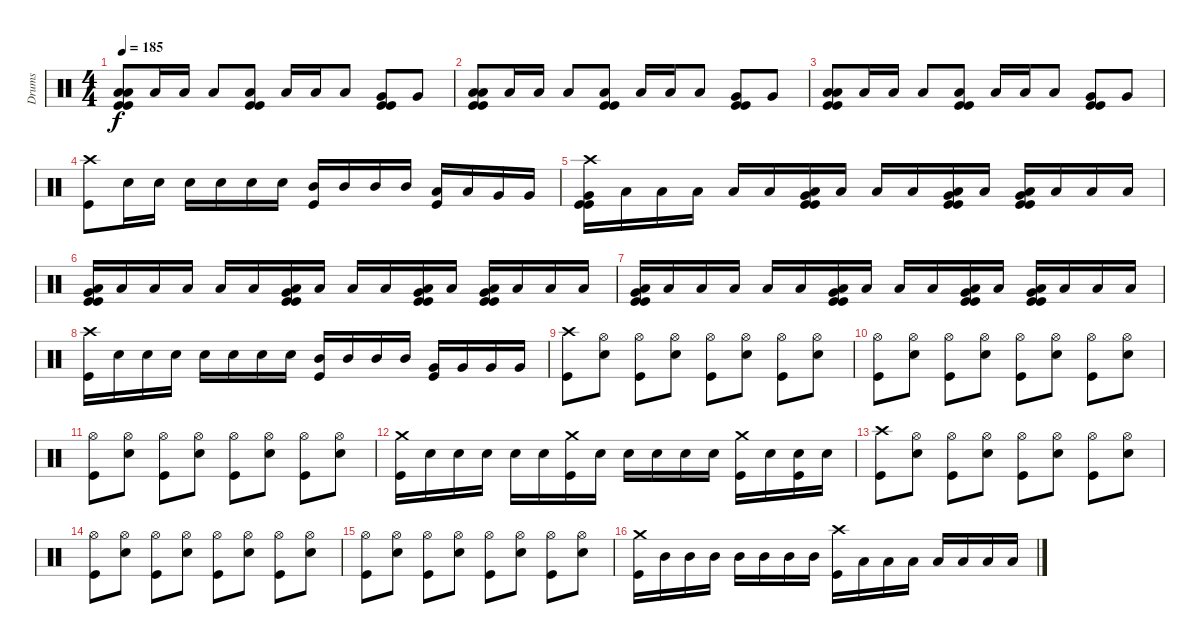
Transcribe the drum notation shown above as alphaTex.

\track ("Drums" "Drums") {instrument percussion}
\staff {score}
\articulation defaults
\ts (4 4)
\tempo 185
\clef neutral
\ks c
("Low Tom (hit)" "Low Tom (hit)" "Kick (hit)" "Kick (hit)").8{dy f} "Low Tom (hit)".16 "Low Tom (hit)".16 "Low Tom (hit)".8 ("Low Tom (hit)" "Kick (hit)" "Kick (hit)").8 "Low Tom (hit)".16 "Low Tom (hit)".16 "Low Tom (hit)".8 ("Very Low Tom (hit)" "Kick (hit)" "Kick (hit)").8 "Very Low Tom (hit)".8 |
("Low Tom (hit)" "Low Tom (hit)" "Kick (hit)" "Kick (hit)").8 "Low Tom (hit)".16 "Low Tom (hit)".16 "Low Tom (hit)".8 ("Low Tom (hit)" "Kick (hit)" "Kick (hit)").8 "Low Tom (hit)".16 "Low Tom (hit)".16 "Low Tom (hit)".8 ("Very Low Tom (hit)" "Kick (hit)" "Kick (hit)").8 "Very Low Tom (hit)".8 |
("Low Tom (hit)" "Low Tom (hit)" "Kick (hit)" "Kick (hit)").8 "Low Tom (hit)".16 "Low Tom (hit)".16 "Low Tom (hit)".8 ("Low Tom (hit)" "Kick (hit)" "Kick (hit)").8 "Low Tom (hit)".16 "Low Tom (hit)".16 "Low Tom (hit)".8 ("Very Low Tom (hit)" "Kick (hit)" "Kick (hit)").8 "Very Low Tom (hit)".8 |
("Crash high (hit)" "Kick (hit)").8 "Electric Snare (hit)".16 "Electric Snare (hit)".16 "Electric Snare (hit)".16 "Electric Snare (hit)".16 "Electric Snare (hit)".16 "Electric Snare (hit)".16 ("Mid Tom (hit)" "Kick (hit)").16 "Mid Tom (hit)".16 "Mid Tom (hit)".16 "Mid Tom (hit)".16 ("Low Tom (hit)" "Kick (hit)").16 "Low Tom (hit)".16 "Very Low Tom (hit)".16 "Very Low Tom (hit)".16 |
("Crash high (hit)" "Very Low Tom (hit)" "Kick (hit)" "Kick (hit)").16 "Low Tom (hit)".16 "Low Tom (hit)".16 "Low Tom (hit)".16 "Low Tom (hit)".16 "Low Tom (hit)".16 ("Low Tom (hit)" "Very Low Tom (hit)" "Kick (hit)" "Kick (hit)").16 "Low Tom (hit)".16 "Low Tom (hit)".16 "Low Tom (hit)".16 ("Low Tom (hit)" "Very Low Tom (hit)" "Kick (hit)" "Kick (hit)").16 "Low Tom (hit)".16 ("Low Tom (hit)" "Very Low Tom (hit)" "Kick (hit)" "Kick (hit)").16 "Low Tom (hit)".16 "Low Tom (hit)".16 "Low Tom (hit)".16 |
("Low Tom (hit)" "Very Low Tom (hit)" "Kick (hit)" "Kick (hit)").16 "Low Tom (hit)".16 "Low Tom (hit)".16 "Low Tom (hit)".16 "Low Tom (hit)".16 "Low Tom (hit)".16 ("Low Tom (hit)" "Very Low Tom (hit)" "Kick (hit)" "Kick (hit)").16 "Low Tom (hit)".16 "Low Tom (hit)".16 "Low Tom (hit)".16 ("Low Tom (hit)" "Very Low Tom (hit)" "Kick (hit)" "Kick (hit)").16 "Low Tom (hit)".16 ("Low Tom (hit)" "Very Low Tom (hit)" "Kick (hit)" "Kick (hit)").16 "Low Tom (hit)".16 "Low Tom (hit)".16 "Low Tom (hit)".16 |
("Low Tom (hit)" "Very Low Tom (hit)" "Kick (hit)" "Kick (hit)").16 "Low Tom (hit)".16 "Low Tom (hit)".16 "Low Tom (hit)".16 "Low Tom (hit)".16 "Low Tom (hit)".16 ("Low Tom (hit)" "Very Low Tom (hit)" "Kick (hit)" "Kick (hit)").16 "Low Tom (hit)".16 "Low Tom (hit)".16 "Low Tom (hit)".16 ("Low Tom (hit)" "Very Low Tom (hit)" "Kick (hit)" "Kick (hit)").16 "Low Tom (hit)".16 ("Low Tom (hit)" "Very Low Tom (hit)" "Kick (hit)" "Kick (hit)").16 "Low Tom (hit)".16 "Low Tom (hit)".16 "Low Tom (hit)".16 |
("Crash high (hit)" "Kick (hit)").16 "Electric Snare (hit)".16 "Electric Snare (hit)".16 "Electric Snare (hit)".16 "Electric Snare (hit)".16 "Electric Snare (hit)".16 "Electric Snare (hit)".16 "Electric Snare (hit)".16 ("Mid Tom (hit)" "Kick (hit)").16 "Mid Tom (hit)".16 "Mid Tom (hit)".16 "Mid Tom (hit)".16 ("Very Low Tom (hit)" "Kick (hit)").16 "Very Low Tom (hit)".16 "Very Low Tom (hit)".16 "Very Low Tom (hit)".16 |
("Crash high (hit)" "Kick (hit)").8 ("Hi-Hat (open)" "Electric Snare (hit)").8 ("Hi-Hat (open)" "Kick (hit)").8 ("Hi-Hat (open)" "Electric Snare (hit)").8 ("Hi-Hat (open)" "Kick (hit)").8 ("Hi-Hat (open)" "Electric Snare (hit)").8 ("Hi-Hat (open)" "Kick (hit)").8 ("Hi-Hat (open)" "Electric Snare (hit)").8 |
("Hi-Hat (open)" "Kick (hit)").8 ("Hi-Hat (open)" "Electric Snare (hit)").8 ("Hi-Hat (open)" "Kick (hit)").8 ("Hi-Hat (open)" "Electric Snare (hit)").8 ("Hi-Hat (open)" "Kick (hit)").8 ("Hi-Hat (open)" "Electric Snare (hit)").8 ("Hi-Hat (open)" "Kick (hit)").8 ("Hi-Hat (open)" "Electric Snare (hit)").8 |
("Hi-Hat (open)" "Kick (hit)").8 ("Hi-Hat (open)" "Electric Snare (hit)").8 ("Hi-Hat (open)" "Kick (hit)").8 ("Hi-Hat (open)" "Electric Snare (hit)").8 ("Hi-Hat (open)" "Kick (hit)").8 ("Hi-Hat (open)" "Electric Snare (hit)").8 ("Hi-Hat (open)" "Kick (hit)").8 ("Hi-Hat (open)" "Electric Snare (hit)").8 |
("Crash medium (hit)" "Kick (hit)").16 "Electric Snare (hit)".16 "Electric Snare (hit)".16 "Electric Snare (hit)".16 "Electric Snare (hit)".16 "Electric Snare (hit)".16 ("Crash medium (hit)" "Kick (hit)").16 "Electric Snare (hit)".16 "Electric Snare (hit)".16 "Electric Snare (hit)".16 "Electric Snare (hit)".16 "Electric Snare (hit)".16 ("Crash medium (hit)" "Kick (hit)").16 "Electric Snare (hit)".16 ("Electric Snare (hit)" "Kick (hit)").16 "Electric Snare (hit)".16 |
("Crash high (hit)" "Kick (hit)").8 ("Hi-Hat (open)" "Electric Snare (hit)").8 ("Hi-Hat (open)" "Kick (hit)").8 ("Hi-Hat (open)" "Electric Snare (hit)").8 ("Hi-Hat (open)" "Kick (hit)").8 ("Hi-Hat (open)" "Electric Snare (hit)").8 ("Hi-Hat (open)" "Kick (hit)").8 ("Hi-Hat (open)" "Electric Snare (hit)").8 |
("Hi-Hat (open)" "Kick (hit)").8 ("Hi-Hat (open)" "Electric Snare (hit)").8 ("Hi-Hat (open)" "Kick (hit)").8 ("Hi-Hat (open)" "Electric Snare (hit)").8 ("Hi-Hat (open)" "Kick (hit)").8 ("Hi-Hat (open)" "Electric Snare (hit)").8 ("Hi-Hat (open)" "Kick (hit)").8 ("Hi-Hat (open)" "Electric Snare (hit)").8 |
("Hi-Hat (open)" "Kick (hit)").8 ("Hi-Hat (open)" "Electric Snare (hit)").8 ("Hi-Hat (open)" "Kick (hit)").8 ("Hi-Hat (open)" "Electric Snare (hit)").8 ("Hi-Hat (open)" "Kick (hit)").8 ("Hi-Hat (open)" "Electric Snare (hit)").8 ("Hi-Hat (open)" "Kick (hit)").8 ("Hi-Hat (open)" "Electric Snare (hit)").8 |
("Crash medium (hit)" "Kick (hit)").16 "Mid Tom (hit)".16 "Mid Tom (hit)".16 "Mid Tom (hit)".16 "Mid Tom (hit)".16 "Mid Tom (hit)".16 "Mid Tom (hit)".16 "Mid Tom (hit)".16 ("Crash high (hit)" "Kick (hit)").16 "Low Tom (hit)".16 "Low Tom (hit)".16 "Low Tom (hit)".16 "Low Tom (hit)".16 "Low Tom (hit)".16 "Low Tom (hit)".16 "Low Tom (hit)".16
